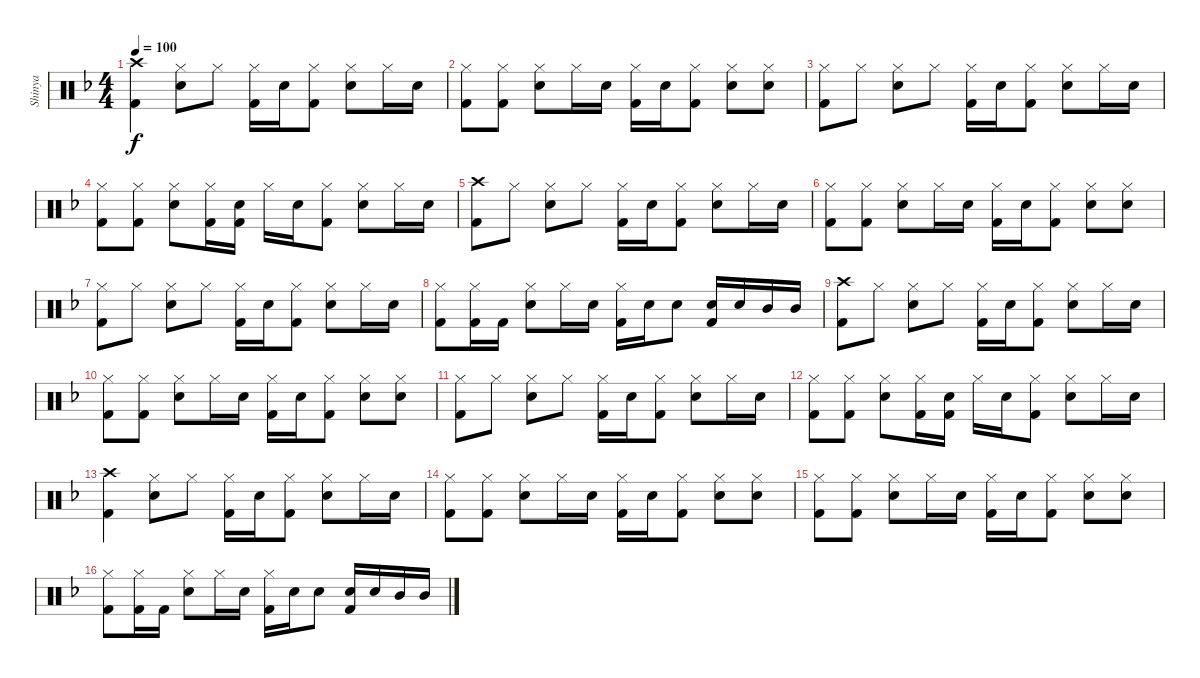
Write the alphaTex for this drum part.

\track ("Shinya" "Shinya") {instrument percussion}
\staff {score}
\articulation defaults
\ts (4 4)
\tempo 100
\clef neutral
\ks f
("Crash high (hit)" "Kick (hit) 2").4{dy f} ("Hi-Hat (closed)" "Electric Snare (hit)").8 "Hi-Hat (closed)".8 ("Hi-Hat (closed)" "Kick (hit) 2").16 "Electric Snare (hit)".16 ("Hi-Hat (closed)" "Kick (hit) 2").8 ("Hi-Hat (closed)" "Electric Snare (hit)").8 "Hi-Hat (closed)".16 "Electric Snare (hit)".16 |
("Hi-Hat (closed)" "Kick (hit) 2").8 ("Hi-Hat (closed)" "Kick (hit) 2").8 ("Hi-Hat (closed)" "Electric Snare (hit)").8 "Hi-Hat (closed)".16 "Electric Snare (hit)".16 ("Hi-Hat (closed)" "Kick (hit) 2").16 "Electric Snare (hit)".16 ("Hi-Hat (closed)" "Kick (hit) 2").8 ("Hi-Hat (closed)" "Electric Snare (hit)").8 ("Hi-Hat (closed)" "Electric Snare (hit)").8 |
("Hi-Hat (closed)" "Kick (hit) 2").8 "Hi-Hat (closed)".8 ("Hi-Hat (closed)" "Electric Snare (hit)").8 "Hi-Hat (closed)".8 ("Hi-Hat (closed)" "Kick (hit) 2").16 "Electric Snare (hit)".16 ("Hi-Hat (closed)" "Kick (hit) 2").8 ("Hi-Hat (closed)" "Electric Snare (hit)").8 "Hi-Hat (closed)".16 "Electric Snare (hit)".16 |
("Hi-Hat (closed)" "Kick (hit) 2").8 ("Hi-Hat (closed)" "Kick (hit) 2").8 ("Hi-Hat (closed)" "Electric Snare (hit)").8 ("Hi-Hat (closed)" "Kick (hit) 2").16 ("Electric Snare (hit)" "Kick (hit) 2").16 "Hi-Hat (closed)".16 "Electric Snare (hit)".16 ("Hi-Hat (closed)" "Kick (hit) 2").8 ("Hi-Hat (closed)" "Electric Snare (hit)").8 "Hi-Hat (closed)".16 "Electric Snare (hit)".16 |
("Crash high (hit)" "Kick (hit) 2").8 "Hi-Hat (closed)".8 ("Hi-Hat (closed)" "Electric Snare (hit)").8 "Hi-Hat (closed)".8 ("Hi-Hat (closed)" "Kick (hit) 2").16 "Electric Snare (hit)".16 ("Hi-Hat (closed)" "Kick (hit) 2").8 ("Hi-Hat (closed)" "Electric Snare (hit)").8 "Hi-Hat (closed)".16 "Electric Snare (hit)".16 |
("Hi-Hat (closed)" "Kick (hit) 2").8 ("Hi-Hat (closed)" "Kick (hit) 2").8 ("Hi-Hat (closed)" "Electric Snare (hit)").8 "Hi-Hat (closed)".16 "Electric Snare (hit)".16 ("Hi-Hat (closed)" "Kick (hit) 2").16 "Electric Snare (hit)".16 ("Hi-Hat (closed)" "Kick (hit) 2").8 ("Hi-Hat (closed)" "Electric Snare (hit)").8 ("Hi-Hat (closed)" "Electric Snare (hit)").8 |
("Hi-Hat (closed)" "Kick (hit) 2").8 "Hi-Hat (closed)".8 ("Hi-Hat (closed)" "Electric Snare (hit)").8 "Hi-Hat (closed)".8 ("Hi-Hat (closed)" "Kick (hit) 2").16 "Electric Snare (hit)".16 ("Hi-Hat (closed)" "Kick (hit) 2").8 ("Hi-Hat (closed)" "Electric Snare (hit)").8 "Hi-Hat (closed)".16 "Electric Snare (hit)".16 |
("Hi-Hat (closed)" "Kick (hit) 2").8 ("Hi-Hat (closed)" "Kick (hit) 2").16 "Kick (hit) 2".16 ("Hi-Hat (closed)" "Electric Snare (hit)").8 "Hi-Hat (closed)".16 "Electric Snare (hit)".16 ("Hi-Hat (closed)" "Kick (hit) 2").16 "Electric Snare (hit)".16 "Electric Snare (hit)".8 ("Electric Snare (hit)" "Kick (hit) 2").16 "Electric Snare (hit)".16 "Mid Tom (hit)".16 "Mid Tom (hit)".16 |
("Crash high (hit)" "Kick (hit) 2").8 "Hi-Hat (closed)".8 ("Hi-Hat (closed)" "Electric Snare (hit)").8 "Hi-Hat (closed)".8 ("Hi-Hat (closed)" "Kick (hit) 2").16 "Electric Snare (hit)".16 ("Hi-Hat (closed)" "Kick (hit) 2").8 ("Hi-Hat (closed)" "Electric Snare (hit)").8 "Hi-Hat (closed)".16 "Electric Snare (hit)".16 |
("Hi-Hat (closed)" "Kick (hit) 2").8 ("Hi-Hat (closed)" "Kick (hit) 2").8 ("Hi-Hat (closed)" "Electric Snare (hit)").8 "Hi-Hat (closed)".16 "Electric Snare (hit)".16 ("Hi-Hat (closed)" "Kick (hit) 2").16 "Electric Snare (hit)".16 ("Hi-Hat (closed)" "Kick (hit) 2").8 ("Hi-Hat (closed)" "Electric Snare (hit)").8 ("Hi-Hat (closed)" "Electric Snare (hit)").8 |
("Hi-Hat (closed)" "Kick (hit) 2").8 "Hi-Hat (closed)".8 ("Hi-Hat (closed)" "Electric Snare (hit)").8 "Hi-Hat (closed)".8 ("Hi-Hat (closed)" "Kick (hit) 2").16 "Electric Snare (hit)".16 ("Hi-Hat (closed)" "Kick (hit) 2").8 ("Hi-Hat (closed)" "Electric Snare (hit)").8 "Hi-Hat (closed)".16 "Electric Snare (hit)".16 |
("Hi-Hat (closed)" "Kick (hit) 2").8 ("Hi-Hat (closed)" "Kick (hit) 2").8 ("Hi-Hat (closed)" "Electric Snare (hit)").8 ("Hi-Hat (closed)" "Kick (hit) 2").16 ("Electric Snare (hit)" "Kick (hit) 2").16 "Hi-Hat (closed)".16 "Electric Snare (hit)".16 ("Hi-Hat (closed)" "Kick (hit) 2").8 ("Hi-Hat (closed)" "Electric Snare (hit)").8 "Hi-Hat (closed)".16 "Electric Snare (hit)".16 |
("Crash high (hit)" "Kick (hit) 2").4 ("Hi-Hat (closed)" "Electric Snare (hit)").8 "Hi-Hat (closed)".8 ("Hi-Hat (closed)" "Kick (hit) 2").16 "Electric Snare (hit)".16 ("Hi-Hat (closed)" "Kick (hit) 2").8 ("Hi-Hat (closed)" "Electric Snare (hit)").8 "Hi-Hat (closed)".16 "Electric Snare (hit)".16 |
("Hi-Hat (closed)" "Kick (hit) 2").8 ("Hi-Hat (closed)" "Kick (hit) 2").8 ("Hi-Hat (closed)" "Electric Snare (hit)").8 "Hi-Hat (closed)".16 "Electric Snare (hit)".16 ("Hi-Hat (closed)" "Kick (hit) 2").16 "Electric Snare (hit)".16 ("Hi-Hat (closed)" "Kick (hit) 2").8 ("Hi-Hat (closed)" "Electric Snare (hit)").8 ("Hi-Hat (closed)" "Electric Snare (hit)").8 |
("Hi-Hat (closed)" "Kick (hit) 2").8 ("Hi-Hat (closed)" "Kick (hit) 2").8 ("Hi-Hat (closed)" "Electric Snare (hit)").8 "Hi-Hat (closed)".16 "Electric Snare (hit)".16 ("Hi-Hat (closed)" "Kick (hit) 2").16 "Electric Snare (hit)".16 ("Hi-Hat (closed)" "Kick (hit) 2").8 ("Hi-Hat (closed)" "Electric Snare (hit)").8 ("Hi-Hat (closed)" "Electric Snare (hit)").8 |
("Hi-Hat (closed)" "Kick (hit) 2").8 ("Hi-Hat (closed)" "Kick (hit) 2").16 "Kick (hit) 2".16 ("Hi-Hat (closed)" "Electric Snare (hit)").8 "Hi-Hat (closed)".16 "Electric Snare (hit)".16 ("Hi-Hat (closed)" "Kick (hit) 2").16 "Electric Snare (hit)".16 "Electric Snare (hit)".8 ("Electric Snare (hit)" "Kick (hit) 2").16 "Electric Snare (hit)".16 "Mid Tom (hit)".16 "Mid Tom (hit)".16
